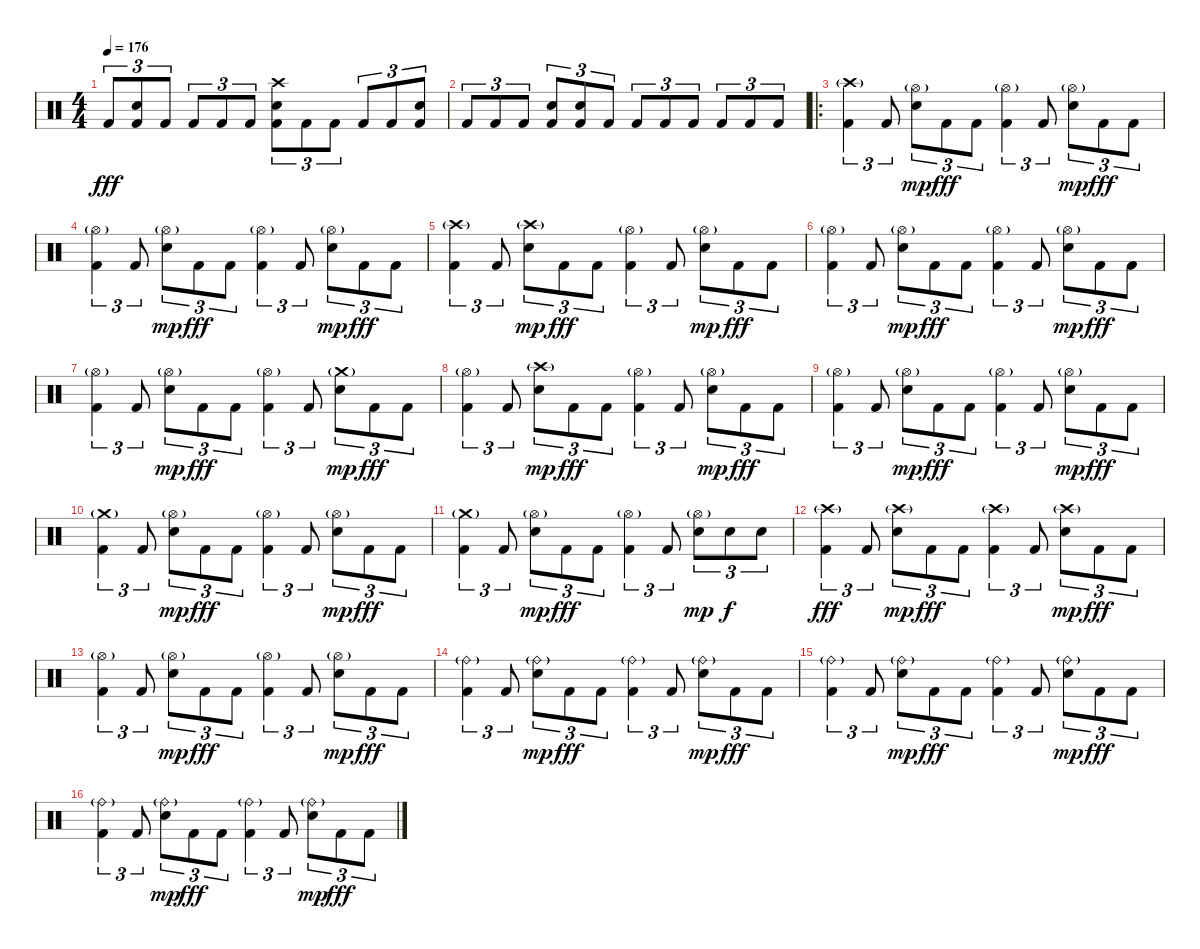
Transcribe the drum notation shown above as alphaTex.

\track "" {instrument percussion}
\staff {score}
\articulation defaults
\ts (4 4)
\tempo 176
\clef neutral
\ks c "Kick (hit) 2".8{tu (3 2) dy fff}
("Snare (hit) 2" "Kick (hit) 2").8{tu (3 2)} "Kick (hit) 2".8{tu (3 2)} "Kick (hit) 2".8{tu (3 2)} "Kick (hit) 2".8{tu (3 2)} "Kick (hit) 2".8{tu (3 2)} ("Crash high (hit)" "Snare (hit) 2" "Kick (hit) 2").8{tu (3 2)} "Kick (hit) 2".8{tu (3 2)} "Kick (hit) 2".8{tu (3 2)} "Kick (hit) 2".8{tu (3 2)} "Kick (hit) 2".8{tu (3 2)} ("Snare (hit) 2" "Kick (hit) 2").8{tu (3 2)} |
"Kick (hit) 2".8{tu (3 2)} "Kick (hit) 2".8{tu (3 2)} "Kick (hit) 2".8{tu (3 2)} ("Snare (hit) 2" "Kick (hit) 2").8{tu (3 2)} ("Snare (hit) 2" "Kick (hit) 2").8{tu (3 2)} "Kick (hit) 2".8{tu (3 2)} "Kick (hit) 2".8{tu (3 2)} "Kick (hit) 2".8{tu (3 2)} "Kick (hit) 2".8{tu (3 2)} "Kick (hit) 2".8{tu (3 2)} "Kick (hit) 2".8{tu (3 2)} "Kick (hit) 2".8{tu (3 2)} |
\ro
("Crash high (hit)"{g} "Kick (hit) 2").4{tu (3 2)} "Kick (hit) 2".8{tu (3 2)} ("Hi-Hat (open)"{g} "Snare (hit) 2").8{tu (3 2) dy mp} "Kick (hit) 2".8{tu (3 2) dy fff} "Kick (hit) 2".8{tu (3 2)} ("Hi-Hat (open)"{g} "Kick (hit) 2").4{tu (3 2)} "Kick (hit) 2".8{tu (3 2)} ("Hi-Hat (open)"{g} "Snare (hit) 2").8{tu (3 2) dy mp} "Kick (hit) 2".8{tu (3 2) dy fff} "Kick (hit) 2".8{tu (3 2)} |
("Hi-Hat (open)"{g} "Kick (hit) 2").4{tu (3 2)} "Kick (hit) 2".8{tu (3 2)} ("Hi-Hat (open)"{g} "Snare (hit) 2").8{tu (3 2) dy mp} "Kick (hit) 2".8{tu (3 2) dy fff} "Kick (hit) 2".8{tu (3 2)} ("Hi-Hat (open)"{g} "Kick (hit) 2").4{tu (3 2)} "Kick (hit) 2".8{tu (3 2)} ("Hi-Hat (open)"{g} "Snare (hit) 2").8{tu (3 2) dy mp} "Kick (hit) 2".8{tu (3 2) dy fff} "Kick (hit) 2".8{tu (3 2)} |
("Crash high (hit)"{g} "Kick (hit) 2").4{tu (3 2)} "Kick (hit) 2".8{tu (3 2)} ("Crash high (hit)"{g} "Snare (hit) 2").8{tu (3 2) dy mp} "Kick (hit) 2".8{tu (3 2) dy fff} "Kick (hit) 2".8{tu (3 2)} ("Hi-Hat (open)"{g} "Kick (hit) 2").4{tu (3 2)} "Kick (hit) 2".8{tu (3 2)} ("Hi-Hat (open)"{g} "Snare (hit) 2").8{tu (3 2) dy mp} "Kick (hit) 2".8{tu (3 2) dy fff} "Kick (hit) 2".8{tu (3 2)} |
("Hi-Hat (open)"{g} "Kick (hit) 2").4{tu (3 2)} "Kick (hit) 2".8{tu (3 2)} ("Hi-Hat (open)"{g} "Snare (hit) 2").8{tu (3 2) dy mp} "Kick (hit) 2".8{tu (3 2) dy fff} "Kick (hit) 2".8{tu (3 2)} ("Hi-Hat (open)"{g} "Kick (hit) 2").4{tu (3 2)} "Kick (hit) 2".8{tu (3 2)} ("Hi-Hat (open)"{g} "Snare (hit) 2").8{tu (3 2) dy mp} "Kick (hit) 2".8{tu (3 2) dy fff} "Kick (hit) 2".8{tu (3 2)} |
("Hi-Hat (open)"{g} "Kick (hit) 2").4{tu (3 2)} "Kick (hit) 2".8{tu (3 2)} ("Hi-Hat (open)"{g} "Snare (hit) 2").8{tu (3 2) dy mp} "Kick (hit) 2".8{tu (3 2) dy fff} "Kick (hit) 2".8{tu (3 2)} ("Hi-Hat (open)"{g} "Kick (hit) 2").4{tu (3 2)} "Kick (hit) 2".8{tu (3 2)} ("Crash medium (hit)"{g} "Snare (hit) 2").8{tu (3 2) dy mp} "Kick (hit) 2".8{tu (3 2) dy fff} "Kick (hit) 2".8{tu (3 2)} |
("Hi-Hat (open)"{g} "Kick (hit) 2").4{tu (3 2)} "Kick (hit) 2".8{tu (3 2)} ("Crash high (hit)"{g} "Snare (hit) 2").8{tu (3 2) dy mp} "Kick (hit) 2".8{tu (3 2) dy fff} "Kick (hit) 2".8{tu (3 2)} ("Hi-Hat (open)"{g} "Kick (hit) 2").4{tu (3 2)} "Kick (hit) 2".8{tu (3 2)} ("Hi-Hat (open)"{g} "Snare (hit) 2").8{tu (3 2) dy mp} "Kick (hit) 2".8{tu (3 2) dy fff} "Kick (hit) 2".8{tu (3 2)} |
("Hi-Hat (open)"{g} "Kick (hit) 2").4{tu (3 2)} "Kick (hit) 2".8{tu (3 2)} ("Hi-Hat (open)"{g} "Snare (hit) 2").8{tu (3 2) dy mp} "Kick (hit) 2".8{tu (3 2) dy fff} "Kick (hit) 2".8{tu (3 2)} ("Hi-Hat (open)"{g} "Kick (hit) 2").4{tu (3 2)} "Kick (hit) 2".8{tu (3 2)} ("Hi-Hat (open)"{g} "Snare (hit) 2").8{tu (3 2) dy mp} "Kick (hit) 2".8{tu (3 2) dy fff} "Kick (hit) 2".8{tu (3 2)} |
("Crash medium (hit)"{g} "Kick (hit) 2").4{tu (3 2)} "Kick (hit) 2".8{tu (3 2)} ("Hi-Hat (open)"{g} "Snare (hit) 2").8{tu (3 2) dy mp} "Kick (hit) 2".8{tu (3 2) dy fff} "Kick (hit) 2".8{tu (3 2)} ("Hi-Hat (open)"{g} "Kick (hit) 2").4{tu (3 2)} "Kick (hit) 2".8{tu (3 2)} ("Hi-Hat (open)"{g} "Snare (hit) 2").8{tu (3 2) dy mp} "Kick (hit) 2".8{tu (3 2) dy fff} "Kick (hit) 2".8{tu (3 2)} |
("Crash medium (hit)"{g} "Kick (hit) 2").4{tu (3 2)} "Kick (hit) 2".8{tu (3 2)} ("Hi-Hat (open)"{g} "Snare (hit) 2").8{tu (3 2) dy mp} "Kick (hit) 2".8{tu (3 2) dy fff} "Kick (hit) 2".8{tu (3 2)} ("Hi-Hat (open)"{g} "Kick (hit) 2").4{tu (3 2)} "Kick (hit) 2".8{tu (3 2)} ("Hi-Hat (open)"{g} "Snare (hit) 2").8{tu (3 2) dy mp} "Snare (hit) 2".8{tu (3 2) dy f} "Snare (hit) 2".8{tu (3 2)} |
("Crash high (hit)"{g} "Kick (hit) 2").4{tu (3 2) dy fff} "Kick (hit) 2".8{tu (3 2)} ("Crash high (hit)"{g} "Snare (hit) 2").8{tu (3 2) dy mp} "Kick (hit) 2".8{tu (3 2) dy fff} "Kick (hit) 2".8{tu (3 2)} ("Crash high (hit)"{g} "Kick (hit) 2").4{tu (3 2)} "Kick (hit) 2".8{tu (3 2)} ("Crash high (hit)"{g} "Snare (hit) 2").8{tu (3 2) dy mp} "Kick (hit) 2".8{tu (3 2) dy fff} "Kick (hit) 2".8{tu (3 2)} |
("Hi-Hat (open)"{g} "Kick (hit) 2").4{tu (3 2)} "Kick (hit) 2".8{tu (3 2)} ("Hi-Hat (open)"{g} "Snare (hit) 2").8{tu (3 2) dy mp} "Kick (hit) 2".8{tu (3 2) dy fff} "Kick (hit) 2".8{tu (3 2)} ("Hi-Hat (open)"{g} "Kick (hit) 2").4{tu (3 2)} "Kick (hit) 2".8{tu (3 2)} ("Hi-Hat (open)"{g} "Snare (hit) 2").8{tu (3 2) dy mp} "Kick (hit) 2".8{tu (3 2) dy fff} "Kick (hit) 2".8{tu (3 2)} |
("Ride (bell)"{g} "Kick (hit) 2").4{tu (3 2)} "Kick (hit) 2".8{tu (3 2)} ("Ride (bell)"{g} "Snare (hit) 2").8{tu (3 2) dy mp} "Kick (hit) 2".8{tu (3 2) dy fff} "Kick (hit) 2".8{tu (3 2)} ("Ride (bell)"{g} "Kick (hit) 2").4{tu (3 2)} "Kick (hit) 2".8{tu (3 2)} ("Ride (bell)"{g} "Snare (hit) 2").8{tu (3 2) dy mp} "Kick (hit) 2".8{tu (3 2) dy fff} "Kick (hit) 2".8{tu (3 2)} |
("Ride (bell)"{g} "Kick (hit) 2").4{tu (3 2)} "Kick (hit) 2".8{tu (3 2)} ("Ride (bell)"{g} "Snare (hit) 2").8{tu (3 2) dy mp} "Kick (hit) 2".8{tu (3 2) dy fff} "Kick (hit) 2".8{tu (3 2)} ("Ride (bell)"{g} "Kick (hit) 2").4{tu (3 2)} "Kick (hit) 2".8{tu (3 2)} ("Ride (bell)"{g} "Snare (hit) 2").8{tu (3 2) dy mp} "Kick (hit) 2".8{tu (3 2) dy fff} "Kick (hit) 2".8{tu (3 2)} |
("Ride (bell)"{g} "Kick (hit) 2").4{tu (3 2)} "Kick (hit) 2".8{tu (3 2)} ("Ride (bell)"{g} "Snare (hit) 2").8{tu (3 2) dy mp} "Kick (hit) 2".8{tu (3 2) dy fff} "Kick (hit) 2".8{tu (3 2)} ("Ride (bell)"{g} "Kick (hit) 2").4{tu (3 2)} "Kick (hit) 2".8{tu (3 2)} ("Ride (bell)"{g} "Snare (hit) 2").8{tu (3 2) dy mp} "Kick (hit) 2".8{tu (3 2) dy fff} "Kick (hit) 2".8{tu (3 2)}
